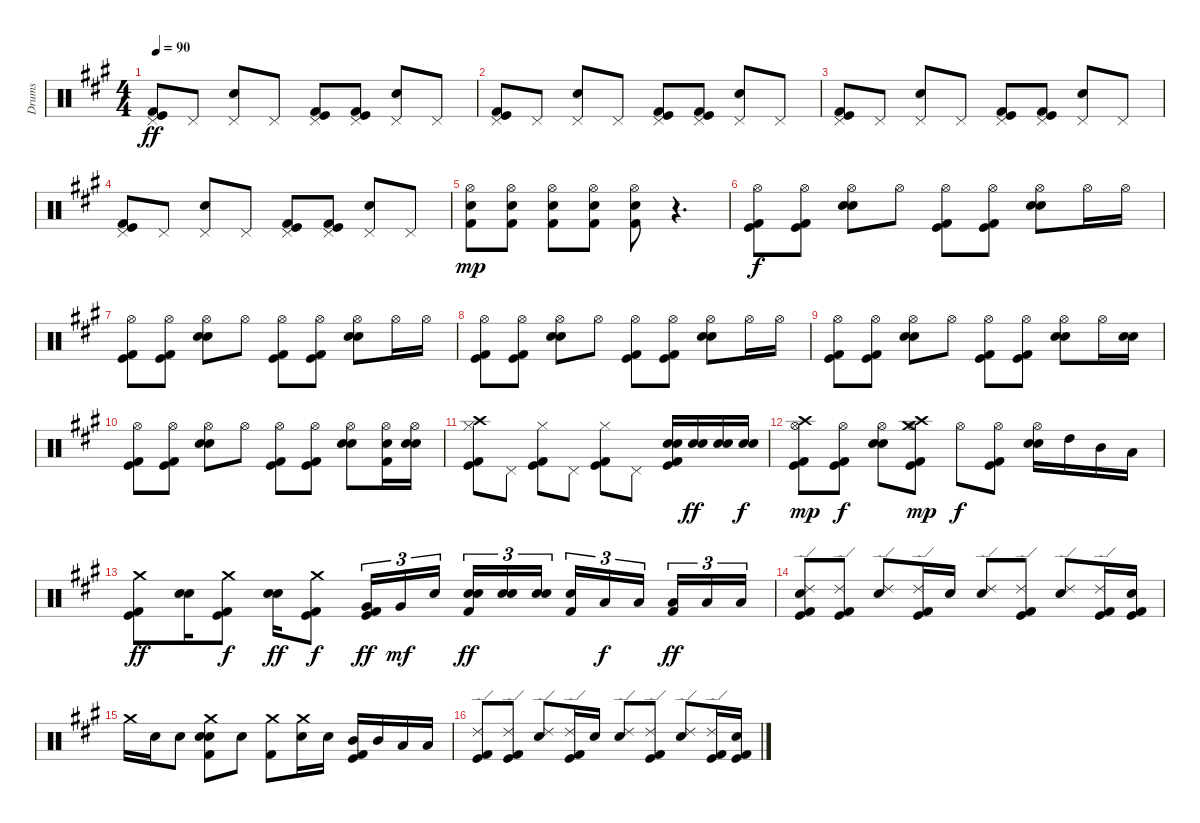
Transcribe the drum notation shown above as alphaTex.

\track ("Drums" "Drums") {instrument percussion}
\staff {score}
\articulation defaults
\ts (4 4)
\tempo 90
\clef neutral
\ks a
("Kick (hit)" "Kick (hit) 2" "Pedal Hi-Hat (hit)").8{dy ff} "Pedal Hi-Hat (hit)".8 ("Snare (hit) 2" "Pedal Hi-Hat (hit)").8 "Pedal Hi-Hat (hit)".8 ("Kick (hit)" "Kick (hit) 2" "Pedal Hi-Hat (hit)").8 ("Kick (hit)" "Kick (hit) 2" "Pedal Hi-Hat (hit)").8 ("Snare (hit) 2" "Pedal Hi-Hat (hit)").8 "Pedal Hi-Hat (hit)".8 |
("Kick (hit)" "Kick (hit) 2" "Pedal Hi-Hat (hit)").8 "Pedal Hi-Hat (hit)".8 ("Snare (hit) 2" "Pedal Hi-Hat (hit)").8 "Pedal Hi-Hat (hit)".8 ("Kick (hit)" "Kick (hit) 2" "Pedal Hi-Hat (hit)").8 ("Kick (hit)" "Kick (hit) 2" "Pedal Hi-Hat (hit)").8 ("Snare (hit) 2" "Pedal Hi-Hat (hit)").8 "Pedal Hi-Hat (hit)".8 |
("Kick (hit)" "Kick (hit) 2" "Pedal Hi-Hat (hit)").8 "Pedal Hi-Hat (hit)".8 ("Snare (hit) 2" "Pedal Hi-Hat (hit)").8 "Pedal Hi-Hat (hit)".8 ("Kick (hit)" "Kick (hit) 2" "Pedal Hi-Hat (hit)").8 ("Kick (hit)" "Kick (hit) 2" "Pedal Hi-Hat (hit)").8 ("Snare (hit) 2" "Pedal Hi-Hat (hit)").8 "Pedal Hi-Hat (hit)".8 |
("Kick (hit)" "Kick (hit) 2" "Pedal Hi-Hat (hit)").8 "Pedal Hi-Hat (hit)".8 ("Snare (hit) 2" "Pedal Hi-Hat (hit)").8 "Pedal Hi-Hat (hit)".8 ("Kick (hit)" "Kick (hit) 2" "Pedal Hi-Hat (hit)").8 ("Kick (hit)" "Kick (hit) 2" "Pedal Hi-Hat (hit)").8 ("Snare (hit) 2" "Pedal Hi-Hat (hit)").8 "Pedal Hi-Hat (hit)".8 |
("Kick (hit) 2" "Snare (hit) 2" "Hi-Hat (open)").8{dy mp} ("Kick (hit) 2" "Snare (hit) 2" "Hi-Hat (open)").8 ("Kick (hit) 2" "Snare (hit) 2" "Hi-Hat (open)").8 ("Kick (hit) 2" "Snare (hit) 2" "Hi-Hat (open)").8 ("Kick (hit) 2" "Snare (hit) 2" "Hi-Hat (open)").8 r.4{d} |
("Hi-Hat (open)" "Kick (hit) 2" "Kick (hit)").8{dy f} ("Hi-Hat (open)" "Kick (hit) 2" "Kick (hit)").8 ("Hi-Hat (open)" "Electric Snare (hit)" "Snare (hit) 2").8 "Hi-Hat (open)".8 ("Hi-Hat (open)" "Kick (hit) 2" "Kick (hit)").8 ("Hi-Hat (open)" "Kick (hit) 2" "Kick (hit)").8 ("Hi-Hat (open)" "Electric Snare (hit)" "Snare (hit) 2").8 "Hi-Hat (open)".16 "Hi-Hat (open)".16 |
("Hi-Hat (open)" "Kick (hit) 2" "Kick (hit)").8 ("Hi-Hat (open)" "Kick (hit) 2" "Kick (hit)").8 ("Hi-Hat (open)" "Electric Snare (hit)" "Snare (hit) 2").8 "Hi-Hat (open)".8 ("Hi-Hat (open)" "Kick (hit) 2" "Kick (hit)").8 ("Hi-Hat (open)" "Kick (hit) 2" "Kick (hit)").8 ("Hi-Hat (open)" "Electric Snare (hit)" "Snare (hit) 2").8 "Hi-Hat (open)".16 "Hi-Hat (open)".16 |
("Hi-Hat (open)" "Kick (hit) 2" "Kick (hit)").8 ("Hi-Hat (open)" "Kick (hit) 2" "Kick (hit)").8 ("Hi-Hat (open)" "Electric Snare (hit)" "Snare (hit) 2").8 "Hi-Hat (open)".8 ("Hi-Hat (open)" "Kick (hit) 2" "Kick (hit)").8 ("Hi-Hat (open)" "Kick (hit) 2" "Kick (hit)").8 ("Hi-Hat (open)" "Electric Snare (hit)" "Snare (hit) 2").8 "Hi-Hat (open)".16 "Hi-Hat (open)".16 |
("Hi-Hat (open)" "Kick (hit) 2" "Kick (hit)").8 ("Hi-Hat (open)" "Kick (hit) 2" "Kick (hit)").8 ("Hi-Hat (open)" "Electric Snare (hit)" "Snare (hit) 2").8 "Hi-Hat (open)".8 ("Hi-Hat (open)" "Kick (hit) 2" "Kick (hit)").8 ("Hi-Hat (open)" "Kick (hit) 2" "Kick (hit)").8 ("Hi-Hat (open)" "Electric Snare (hit)" "Snare (hit) 2").8 "Hi-Hat (open)".16 ("Electric Snare (hit)" "Snare (hit) 2").16 |
("Hi-Hat (open)" "Kick (hit) 2" "Kick (hit)").8 ("Hi-Hat (open)" "Kick (hit) 2" "Kick (hit)").8 ("Hi-Hat (open)" "Electric Snare (hit)" "Snare (hit) 2").8 "Hi-Hat (open)".8 ("Hi-Hat (open)" "Kick (hit) 2" "Kick (hit)").8 ("Hi-Hat (open)" "Kick (hit) 2" "Kick (hit)").8 ("Hi-Hat (open)" "Electric Snare (hit)" "Snare (hit) 2").8 ("Hi-Hat (open)" "Snare (hit) 2" "Kick (hit) 2").16 ("Hi-Hat (open)" "Electric Snare (hit)" "Snare (hit) 2").16 |
("Hi-Hat (closed)" "Crash high (hit)" "Kick (hit) 2" "Kick (hit)").8 "Pedal Hi-Hat (hit)".8 ("Hi-Hat (closed)" "Kick (hit) 2" "Kick (hit)").8 "Pedal Hi-Hat (hit)".8 ("Hi-Hat (closed)" "Kick (hit) 2" "Kick (hit)").8 "Pedal Hi-Hat (hit)".8 ("Snare (hit) 2" "Electric Snare (hit)" "Kick (hit)" "Kick (hit) 2").16 ("Snare (hit) 2" "Electric Snare (hit)").16{dy ff} ("Snare (hit) 2" "Electric Snare (hit)").16 ("Snare (hit) 2" "Electric Snare (hit)").16{dy f} |
("Hi-Hat (open)" "Crash high (hit)" "Kick (hit) 2" "Kick (hit)").8{dy mp} ("Hi-Hat (open)" "Kick (hit) 2" "Kick (hit)").8{dy f} ("Hi-Hat (open)" "Electric Snare (hit)" "Snare (hit) 2").8 ("Hi-Hat (open)" "Crash medium (hit)" "Crash high (hit)" "Kick (hit) 2" "Kick (hit)").8{dy mp} "Hi-Hat (open)".8{dy f} ("Hi-Hat (open)" "Kick (hit) 2" "Kick (hit)").8 ("Hi-Hat (open)" "Electric Snare (hit)" "Snare (hit) 2").16 "High Tom (hit)".16 "Mid Tom (hit)".16 "Low Tom (hit)".16 |
("Crash medium (hit)" "Kick (hit) 2" "Kick (hit)").8{dy ff} ("Electric Snare (hit)" "Snare (hit) 2").16 ("Crash medium (hit)" "Kick (hit) 2" "Kick (hit)").8{dy f} ("Electric Snare (hit)" "Snare (hit) 2").16{dy ff} ("Crash medium (hit)" "Kick (hit) 2" "Kick (hit)").8{dy f} ("Very Low Tom (hit)" "Kick (hit) 2" "Kick (hit)").16{tu (3 2) dy ff} "Very Low Tom (hit)".16{tu (3 2) dy mf} "Electric Snare (hit)".16{tu (3 2) beam splitsecondary} ("Kick (hit) 2" "Electric Snare (hit)" "Snare (hit) 2").16{tu (3 2) dy ff} ("Electric Snare (hit)" "Snare (hit) 2").16{tu (3 2)} ("Electric Snare (hit)" "Snare (hit) 2").16{tu (3 2)} ("Kick (hit) 2" "Snare (hit) 2").16{tu (3 2)} "Low Tom (hit)".16{tu (3 2) dy f} "Low Tom (hit)".16{tu (3 2) beam splitsecondary} ("Kick (hit) 2" "Low Floor Tom (hit)").16{tu (3 2) dy ff} "Low Floor Tom (hit)".16{tu (3 2)} "Low Floor Tom (hit)".16{tu (3 2)} |
("Kick (hit)" "Kick (hit) 2" "Electric Snare (hit)" "Ride (edge) 2").8 ("Kick (hit)" "Kick (hit) 2" "Ride (edge) 2").8 ("Electric Snare (hit)" "Ride (edge) 2").8 ("Kick (hit)" "Kick (hit) 2" "Ride (edge) 2").16 "Electric Snare (hit)".16 ("Electric Snare (hit)" "Ride (edge) 2").8 ("Kick (hit)" "Kick (hit) 2" "Ride (edge) 2").8 ("Electric Snare (hit)" "Ride (edge) 2").8 ("Kick (hit)" "Kick (hit) 2" "Ride (edge) 2").16 ("Kick (hit)" "Kick (hit) 2" "Electric Snare (hit)").16 |
"Crash medium (hit)".16 "Electric Snare (hit)".16 "Snare (hit) 2".8 ("Kick (hit) 2" "Snare (hit) 2" "Electric Snare (hit)" "Crash medium (hit)").8 "Electric Snare (hit)".8 ("Kick (hit) 2" "Crash medium (hit)").8 ("Electric Snare (hit)" "Crash medium (hit)").16 "Electric Snare (hit)".16 ("Kick (hit)" "Kick (hit) 2" "Mid Tom (hit)").16 "Mid Tom (hit)".16 "Low Tom (hit)".16 "Low Tom (hit)".16 |
("Kick (hit)" "Kick (hit) 2" "Ride (edge) 2").8 ("Kick (hit)" "Kick (hit) 2" "Ride (edge) 2").8 ("Electric Snare (hit)" "Ride (edge) 2").8 ("Kick (hit)" "Kick (hit) 2" "Ride (edge) 2").16 "Electric Snare (hit)".16 ("Electric Snare (hit)" "Ride (edge) 2").8 ("Kick (hit)" "Kick (hit) 2" "Ride (edge) 2").8 ("Electric Snare (hit)" "Ride (edge) 2").8 ("Kick (hit)" "Kick (hit) 2" "Ride (edge) 2").16 ("Kick (hit)" "Kick (hit) 2" "Electric Snare (hit)").16
